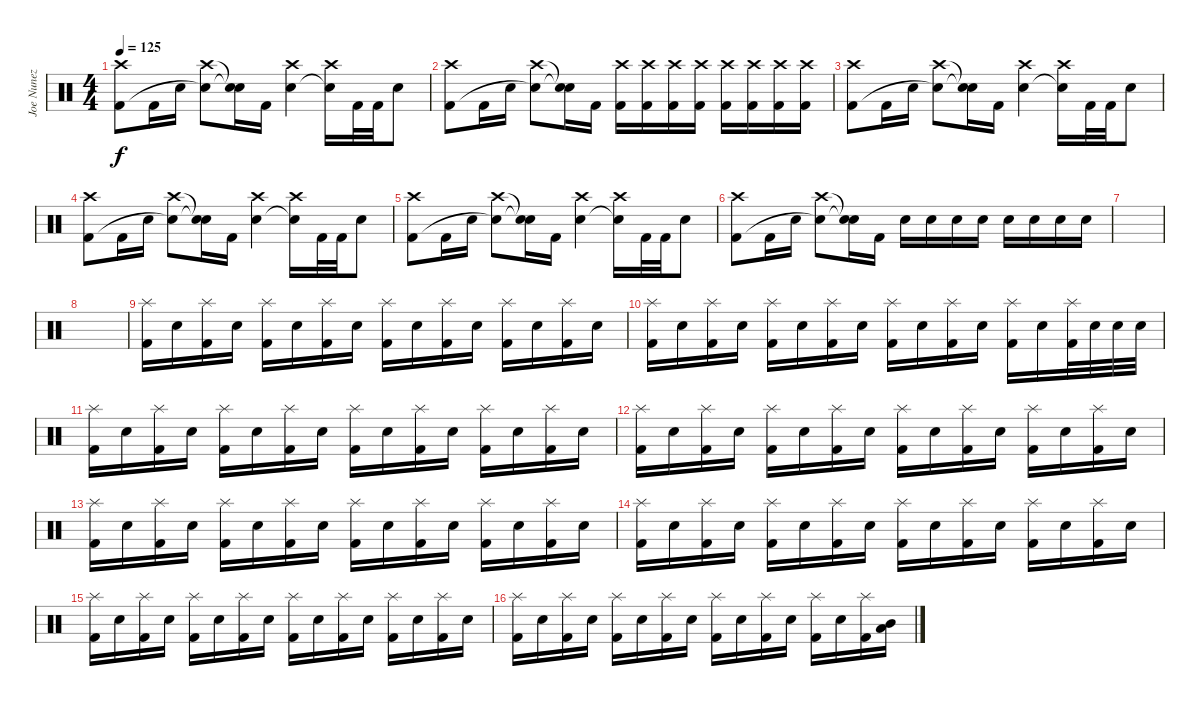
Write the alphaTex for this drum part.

\track ("Joe Nunez" "Joe Nunez") {instrument percussion}
\staff {score}
\articulation defaults
\ts (4 4)
\tempo 125
\clef neutral
\ks c
("Crash high (hit)" "Kick (hit) 2").8{dy f} "Kick (hit) 2".16 "Snare (hit) 2".16 ("Crash high (hit)" "Snare (hit)"{t}).8 ("Snare (hit)"{t} "Snare (hit)"{t}).16 "Kick (hit) 2".16 ("Crash high (hit)" "Snare (hit) 2").4 ("Crash high (hit)" "Snare (hit)"{t}).16 "Kick (hit) 2".32 "Kick (hit) 2".32 "Snare (hit) 2".8 |
("Crash high (hit)" "Kick (hit) 2").8 "Kick (hit) 2".16 "Snare (hit) 2".16 ("Crash high (hit)" "Snare (hit)"{t}).8 ("Snare (hit)"{t} "Snare (hit)"{t}).16 "Kick (hit) 2".16 ("Crash high (hit)" "Kick (hit) 2").16 ("Crash high (hit)" "Kick (hit) 2").16 ("Crash high (hit)" "Kick (hit) 2").16 ("Crash high (hit)" "Kick (hit) 2").16 ("Crash high (hit)" "Kick (hit) 2").16 ("Crash high (hit)" "Kick (hit) 2").16 ("Crash high (hit)" "Kick (hit) 2").16 ("Crash high (hit)" "Kick (hit) 2").16 |
("Crash high (hit)" "Kick (hit) 2").8 "Kick (hit) 2".16 "Snare (hit) 2".16 ("Crash high (hit)" "Snare (hit)"{t}).8 ("Snare (hit)"{t} "Snare (hit)"{t}).16 "Kick (hit) 2".16 ("Crash high (hit)" "Snare (hit) 2").4 ("Crash high (hit)" "Snare (hit)"{t}).16 "Kick (hit) 2".32 "Kick (hit) 2".32 "Snare (hit) 2".8 |
("Crash high (hit)" "Kick (hit) 2").8 "Kick (hit) 2".16 "Snare (hit) 2".16 ("Crash high (hit)" "Snare (hit)"{t}).8 ("Snare (hit)"{t} "Snare (hit)"{t}).16 "Kick (hit) 2".16 ("Crash high (hit)" "Snare (hit) 2").4 ("Crash high (hit)" "Snare (hit)"{t}).16 "Kick (hit) 2".32 "Kick (hit) 2".32 "Snare (hit) 2".8 |
("Crash high (hit)" "Kick (hit) 2").8 "Kick (hit) 2".16 "Snare (hit) 2".16 ("Crash high (hit)" "Snare (hit)"{t}).8 ("Snare (hit)"{t} "Snare (hit)"{t}).16 "Kick (hit) 2".16 ("Crash high (hit)" "Snare (hit) 2").4 ("Crash high (hit)" "Snare (hit)"{t}).16 "Kick (hit) 2".32 "Kick (hit) 2".32 "Snare (hit) 2".8 |
("Crash high (hit)" "Kick (hit) 2").8 "Kick (hit) 2".16 "Snare (hit) 2".16 ("Crash high (hit)" "Snare (hit)"{t}).8 ("Snare (hit)"{t} "Snare (hit)"{t}).16 "Kick (hit) 2".16 "Snare (hit) 2".16 "Snare (hit) 2".16 "Snare (hit) 2".16 "Snare (hit) 2".16 "Snare (hit) 2".16 "Snare (hit) 2".16 "Snare (hit) 2".16 "Snare (hit) 2".16 |
|
|
("Splash (hit)" "Kick (hit) 2").16 "Snare (hit) 2".16 ("Splash (hit)" "Kick (hit) 2").16 "Snare (hit) 2".16 ("Splash (hit)" "Kick (hit) 2").16 "Snare (hit) 2".16 ("Splash (hit)" "Kick (hit) 2").16 "Snare (hit) 2".16 ("Splash (hit)" "Kick (hit) 2").16 "Snare (hit) 2".16 ("Splash (hit)" "Kick (hit) 2").16 "Snare (hit) 2".16 ("Splash (hit)" "Kick (hit) 2").16 "Snare (hit) 2".16 ("Splash (hit)" "Kick (hit) 2").16 "Snare (hit) 2".16 |
("Splash (hit)" "Kick (hit) 2").16 "Snare (hit) 2".16 ("Splash (hit)" "Kick (hit) 2").16 "Snare (hit) 2".16 ("Splash (hit)" "Kick (hit) 2").16 "Snare (hit) 2".16 ("Splash (hit)" "Kick (hit) 2").16 "Snare (hit) 2".16 ("Splash (hit)" "Kick (hit) 2").16 "Snare (hit) 2".16 ("Splash (hit)" "Kick (hit) 2").16 "Snare (hit) 2".16 ("Splash (hit)" "Kick (hit) 2").16 "Snare (hit) 2".16 ("Splash (hit)" "Kick (hit) 2").32 "Snare (hit) 2".32 "Snare (hit) 2".32 "Snare (hit) 2".32 |
("Splash (hit)" "Kick (hit) 2").16 "Snare (hit) 2".16 ("Splash (hit)" "Kick (hit) 2").16 "Snare (hit) 2".16 ("Splash (hit)" "Kick (hit) 2").16 "Snare (hit) 2".16 ("Splash (hit)" "Kick (hit) 2").16 "Snare (hit) 2".16 ("Splash (hit)" "Kick (hit) 2").16 "Snare (hit) 2".16 ("Splash (hit)" "Kick (hit) 2").16 "Snare (hit) 2".16 ("Splash (hit)" "Kick (hit) 2").16 "Snare (hit) 2".16 ("Splash (hit)" "Kick (hit) 2").16 "Snare (hit) 2".16 |
("Splash (hit)" "Kick (hit) 2").16 "Snare (hit) 2".16 ("Splash (hit)" "Kick (hit) 2").16 "Snare (hit) 2".16 ("Splash (hit)" "Kick (hit) 2").16 "Snare (hit) 2".16 ("Splash (hit)" "Kick (hit) 2").16 "Snare (hit) 2".16 ("Splash (hit)" "Kick (hit) 2").16 "Snare (hit) 2".16 ("Splash (hit)" "Kick (hit) 2").16 "Snare (hit) 2".16 ("Splash (hit)" "Kick (hit) 2").16 "Snare (hit) 2".16 ("Splash (hit)" "Kick (hit) 2").16 "Snare (hit) 2".16 |
("Splash (hit)" "Kick (hit) 2").16 "Snare (hit) 2".16 ("Splash (hit)" "Kick (hit) 2").16 "Snare (hit) 2".16 ("Splash (hit)" "Kick (hit) 2").16 "Snare (hit) 2".16 ("Splash (hit)" "Kick (hit) 2").16 "Snare (hit) 2".16 ("Splash (hit)" "Kick (hit) 2").16 "Snare (hit) 2".16 ("Splash (hit)" "Kick (hit) 2").16 "Snare (hit) 2".16 ("Splash (hit)" "Kick (hit) 2").16 "Snare (hit) 2".16 ("Splash (hit)" "Kick (hit) 2").16 "Snare (hit) 2".16 |
("Splash (hit)" "Kick (hit) 2").16 "Snare (hit) 2".16 ("Splash (hit)" "Kick (hit) 2").16 "Snare (hit) 2".16 ("Splash (hit)" "Kick (hit) 2").16 "Snare (hit) 2".16 ("Splash (hit)" "Kick (hit) 2").16 "Snare (hit) 2".16 ("Splash (hit)" "Kick (hit) 2").16 "Snare (hit) 2".16 ("Splash (hit)" "Kick (hit) 2").16 "Snare (hit) 2".16 ("Splash (hit)" "Kick (hit) 2").16 "Snare (hit) 2".16 ("Splash (hit)" "Kick (hit) 2").16 "Snare (hit) 2".16 |
("Splash (hit)" "Kick (hit) 2").16 "Snare (hit) 2".16 ("Splash (hit)" "Kick (hit) 2").16 "Snare (hit) 2".16 ("Splash (hit)" "Kick (hit) 2").16 "Snare (hit) 2".16 ("Splash (hit)" "Kick (hit) 2").16 "Snare (hit) 2".16 ("Splash (hit)" "Kick (hit) 2").16 "Snare (hit) 2".16 ("Splash (hit)" "Kick (hit) 2").16 "Snare (hit) 2".16 ("Splash (hit)" "Kick (hit) 2").16 "Snare (hit) 2".16 ("Splash (hit)" "Kick (hit) 2").16 "Snare (hit) 2".16 |
("Splash (hit)" "Kick (hit) 2").16 "Snare (hit) 2".16 ("Splash (hit)" "Kick (hit) 2").16 "Snare (hit) 2".16 ("Splash (hit)" "Kick (hit) 2").16 "Snare (hit) 2".16 ("Splash (hit)" "Kick (hit) 2").16 "Snare (hit) 2".16 ("Splash (hit)" "Kick (hit) 2").16 "Snare (hit) 2".16 ("Splash (hit)" "Kick (hit) 2").16 "Snare (hit) 2".16 ("Splash (hit)" "Kick (hit) 2").16 "Snare (hit) 2".16 ("Splash (hit)" "Kick (hit) 2").16 ("Mid Tom (hit)" "Low Tom (hit)").16
